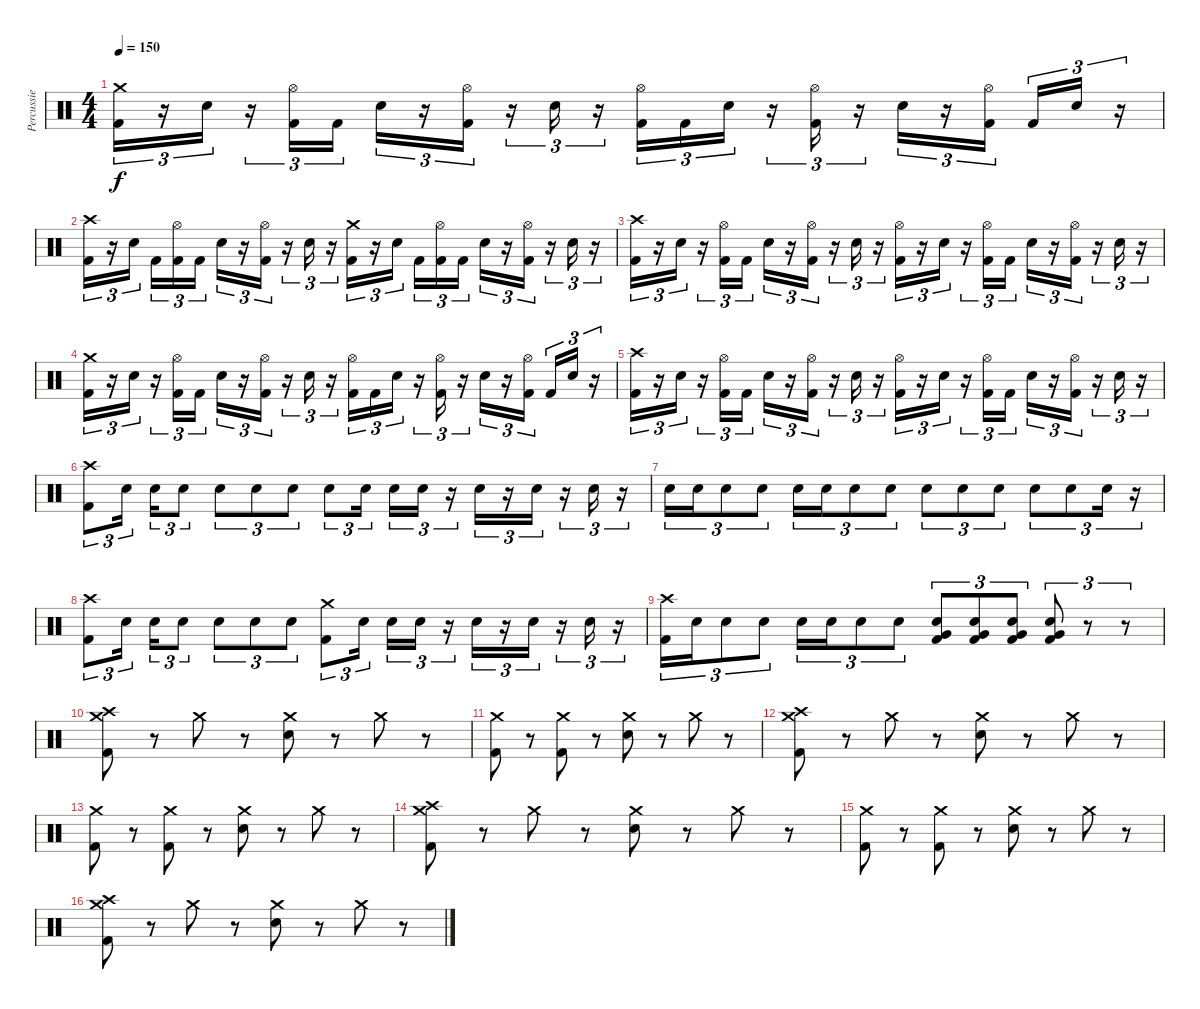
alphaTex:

\track ("Percussie" "Percussie") {instrument percussion}
\staff {score}
\articulation defaults
\ts (4 4)
\tempo 150
\clef neutral
\ks c
("Crash medium (hit)" "Kick (hit) 2").16{tu (3 2) dy f} r.16{tu (3 2)} "Electric Snare (hit)".16{tu (3 2)} r.16{tu (3 2)} ("Hi-Hat (open)" "Kick (hit) 2").16{tu (3 2)} "Kick (hit) 2".16{tu (3 2)} "Electric Snare (hit)".16{tu (3 2)} r.16{tu (3 2)} ("Hi-Hat (open)" "Kick (hit) 2").16{tu (3 2)} r.16{tu (3 2)} "Electric Snare (hit)".16{tu (3 2)} r.16{tu (3 2)} ("Hi-Hat (open)" "Kick (hit) 2").16{tu (3 2)} "Kick (hit) 2".16{tu (3 2)} "Electric Snare (hit)".16{tu (3 2)} r.16{tu (3 2)} ("Hi-Hat (open)" "Kick (hit) 2").16{tu (3 2)} r.16{tu (3 2)} "Electric Snare (hit)".16{tu (3 2)} r.16{tu (3 2)} ("Hi-Hat (open)" "Kick (hit) 2").16{tu (3 2) beam splitsecondary} "Kick (hit) 2".16{tu (3 2)} "Electric Snare (hit)".16{tu (3 2)} r.16{tu (3 2)} |
("Crash high (hit)" "Kick (hit) 2").16{tu (3 2)} r.16{tu (3 2)} "Electric Snare (hit)".16{tu (3 2) beam splitsecondary} "Kick (hit) 2".16{tu (3 2)} ("Hi-Hat (open)" "Kick (hit) 2").16{tu (3 2)} "Kick (hit) 2".16{tu (3 2)} "Electric Snare (hit)".16{tu (3 2)} r.16{tu (3 2)} ("Hi-Hat (open)" "Kick (hit) 2").16{tu (3 2)} r.16{tu (3 2)} "Electric Snare (hit)".16{tu (3 2)} r.16{tu (3 2)} ("Crash medium (hit)" "Kick (hit) 2").16{tu (3 2)} r.16{tu (3 2)} "Electric Snare (hit)".16{tu (3 2) beam splitsecondary} "Kick (hit) 2".16{tu (3 2)} ("Hi-Hat (open)" "Kick (hit) 2").16{tu (3 2)} "Kick (hit) 2".16{tu (3 2)} "Electric Snare (hit)".16{tu (3 2)} r.16{tu (3 2)} ("Hi-Hat (open)" "Kick (hit) 2").16{tu (3 2)} r.16{tu (3 2)} "Electric Snare (hit)".16{tu (3 2)} r.16{tu (3 2)} |
("Crash high (hit)" "Kick (hit) 2").16{tu (3 2)} r.16{tu (3 2)} "Electric Snare (hit)".16{tu (3 2)} r.16{tu (3 2)} ("Hi-Hat (open)" "Kick (hit) 2").16{tu (3 2)} "Kick (hit) 2".16{tu (3 2)} "Electric Snare (hit)".16{tu (3 2)} r.16{tu (3 2)} ("Hi-Hat (open)" "Kick (hit) 2").16{tu (3 2)} r.16{tu (3 2)} "Electric Snare (hit)".16{tu (3 2)} r.16{tu (3 2)} ("Hi-Hat (open)" "Kick (hit) 2").16{tu (3 2)} r.16{tu (3 2)} "Electric Snare (hit)".16{tu (3 2)} r.16{tu (3 2)} ("Hi-Hat (open)" "Kick (hit) 2").16{tu (3 2)} "Kick (hit) 2".16{tu (3 2)} "Electric Snare (hit)".16{tu (3 2)} r.16{tu (3 2)} ("Hi-Hat (open)" "Kick (hit) 2").16{tu (3 2)} r.16{tu (3 2)} "Electric Snare (hit)".16{tu (3 2)} r.16{tu (3 2)} |
("Crash medium (hit)" "Kick (hit) 2").16{tu (3 2)} r.16{tu (3 2)} "Electric Snare (hit)".16{tu (3 2)} r.16{tu (3 2)} ("Hi-Hat (open)" "Kick (hit) 2").16{tu (3 2)} "Kick (hit) 2".16{tu (3 2)} "Electric Snare (hit)".16{tu (3 2)} r.16{tu (3 2)} ("Hi-Hat (open)" "Kick (hit) 2").16{tu (3 2)} r.16{tu (3 2)} "Electric Snare (hit)".16{tu (3 2)} r.16{tu (3 2)} ("Hi-Hat (open)" "Kick (hit) 2").16{tu (3 2)} "Kick (hit) 2".16{tu (3 2)} "Electric Snare (hit)".16{tu (3 2)} r.16{tu (3 2)} ("Hi-Hat (open)" "Kick (hit) 2").16{tu (3 2)} r.16{tu (3 2)} "Electric Snare (hit)".16{tu (3 2)} r.16{tu (3 2)} ("Hi-Hat (open)" "Kick (hit) 2").16{tu (3 2) beam splitsecondary} "Kick (hit) 2".16{tu (3 2)} "Electric Snare (hit)".16{tu (3 2)} r.16{tu (3 2)} |
("Crash high (hit)" "Kick (hit) 2").16{tu (3 2)} r.16{tu (3 2)} "Electric Snare (hit)".16{tu (3 2)} r.16{tu (3 2)} ("Hi-Hat (open)" "Kick (hit) 2").16{tu (3 2)} "Kick (hit) 2".16{tu (3 2)} "Electric Snare (hit)".16{tu (3 2)} r.16{tu (3 2)} ("Hi-Hat (open)" "Kick (hit) 2").16{tu (3 2)} r.16{tu (3 2)} "Electric Snare (hit)".16{tu (3 2)} r.16{tu (3 2)} ("Hi-Hat (open)" "Kick (hit) 2").16{tu (3 2)} r.16{tu (3 2)} "Electric Snare (hit)".16{tu (3 2)} r.16{tu (3 2)} ("Hi-Hat (open)" "Kick (hit) 2").16{tu (3 2)} "Kick (hit) 2".16{tu (3 2)} "Electric Snare (hit)".16{tu (3 2)} r.16{tu (3 2)} ("Hi-Hat (open)" "Kick (hit) 2").16{tu (3 2)} r.16{tu (3 2)} "Electric Snare (hit)".16{tu (3 2)} r.16{tu (3 2)} |
("Crash high (hit)" "Kick (hit) 2").8{tu (3 2)} "Electric Snare (hit)".16{tu (3 2) beam splitsecondary} "Electric Snare (hit)".16{tu (3 2)} "Electric Snare (hit)".8{tu (3 2)} "Electric Snare (hit)".8{tu (3 2)} "Electric Snare (hit)".8{tu (3 2)} "Electric Snare (hit)".8{tu (3 2)} "Electric Snare (hit)".8{tu (3 2)} "Electric Snare (hit)".16{tu (3 2) beam splitsecondary} "Electric Snare (hit)".16{tu (3 2)} "Electric Snare (hit)".16{tu (3 2)} r.16{tu (3 2)} "Electric Snare (hit)".16{tu (3 2)} r.16{tu (3 2)} "Electric Snare (hit)".16{tu (3 2)} r.16{tu (3 2)} "Electric Snare (hit)".16{tu (3 2)} r.16{tu (3 2)} |
"Electric Snare (hit)".16{tu (3 2)} "Electric Snare (hit)".16{tu (3 2)} "Electric Snare (hit)".8{tu (3 2)} "Electric Snare (hit)".8{tu (3 2)} "Electric Snare (hit)".16{tu (3 2)} "Electric Snare (hit)".16{tu (3 2)} "Electric Snare (hit)".8{tu (3 2)} "Electric Snare (hit)".8{tu (3 2)} "Electric Snare (hit)".8{tu (3 2)} "Electric Snare (hit)".8{tu (3 2)} "Electric Snare (hit)".8{tu (3 2)} "Electric Snare (hit)".8{tu (3 2)} "Electric Snare (hit)".8{tu (3 2)} "Electric Snare (hit)".16{tu (3 2)} r.16{tu (3 2)} |
("Crash high (hit)" "Kick (hit) 2").8{tu (3 2)} "Electric Snare (hit)".16{tu (3 2) beam splitsecondary} "Electric Snare (hit)".16{tu (3 2)} "Electric Snare (hit)".8{tu (3 2)} "Electric Snare (hit)".8{tu (3 2)} "Electric Snare (hit)".8{tu (3 2)} "Electric Snare (hit)".8{tu (3 2)} ("Crash medium (hit)" "Kick (hit) 2").8{tu (3 2)} "Electric Snare (hit)".16{tu (3 2) beam splitsecondary} "Electric Snare (hit)".16{tu (3 2)} "Electric Snare (hit)".16{tu (3 2)} r.16{tu (3 2)} "Electric Snare (hit)".16{tu (3 2)} r.16{tu (3 2)} "Electric Snare (hit)".16{tu (3 2)} r.16{tu (3 2)} "Electric Snare (hit)".16{tu (3 2)} r.16{tu (3 2)} |
("Crash high (hit)" "Kick (hit) 2").16{tu (3 2)} "Electric Snare (hit)".16{tu (3 2)} "Electric Snare (hit)".8{tu (3 2)} "Electric Snare (hit)".8{tu (3 2)} "Electric Snare (hit)".16{tu (3 2)} "Electric Snare (hit)".16{tu (3 2)} "Electric Snare (hit)".8{tu (3 2)} "Electric Snare (hit)".8{tu (3 2)} ("Electric Snare (hit)" "Very Low Tom (hit)" "Kick (hit) 2").8{tu (3 2)} ("Electric Snare (hit)" "Very Low Tom (hit)" "Kick (hit) 2").8{tu (3 2)} ("Electric Snare (hit)" "Very Low Tom (hit)" "Kick (hit) 2").8{tu (3 2)} ("Electric Snare (hit)" "Very Low Tom (hit)" "Kick (hit) 2").8{tu (3 2)} r.8{tu (3 2)} r.8{tu (3 2)} |
("Crash medium (hit)" "Crash high (hit)" "Kick (hit) 2").8 r.8 "Crash medium (hit)".8 r.8 ("Crash medium (hit)" "Electric Snare (hit)").8 r.8 "Crash medium (hit)".8 r.8 |
("Crash medium (hit)" "Kick (hit) 2").8 r.8 ("Crash medium (hit)" "Kick (hit) 2").8 r.8 ("Crash medium (hit)" "Electric Snare (hit)").8 r.8 "Crash medium (hit)".8 r.8 |
("Crash medium (hit)" "Crash high (hit)" "Kick (hit) 2").8 r.8 "Crash medium (hit)".8 r.8 ("Crash medium (hit)" "Electric Snare (hit)").8 r.8 "Crash medium (hit)".8 r.8 |
("Crash medium (hit)" "Kick (hit) 2").8 r.8 ("Crash medium (hit)" "Kick (hit) 2").8 r.8 ("Crash medium (hit)" "Electric Snare (hit)").8 r.8 "Crash medium (hit)".8 r.8 |
("Crash medium (hit)" "Crash high (hit)" "Kick (hit) 2").8 r.8 "Crash medium (hit)".8 r.8 ("Crash medium (hit)" "Electric Snare (hit)").8 r.8 "Crash medium (hit)".8 r.8 |
("Crash medium (hit)" "Kick (hit) 2").8 r.8 ("Crash medium (hit)" "Kick (hit) 2").8 r.8 ("Crash medium (hit)" "Electric Snare (hit)").8 r.8 "Crash medium (hit)".8 r.8 |
("Crash medium (hit)" "Crash high (hit)" "Kick (hit) 2").8 r.8 "Crash medium (hit)".8 r.8 ("Crash medium (hit)" "Electric Snare (hit)").8 r.8 "Crash medium (hit)".8 r.8
